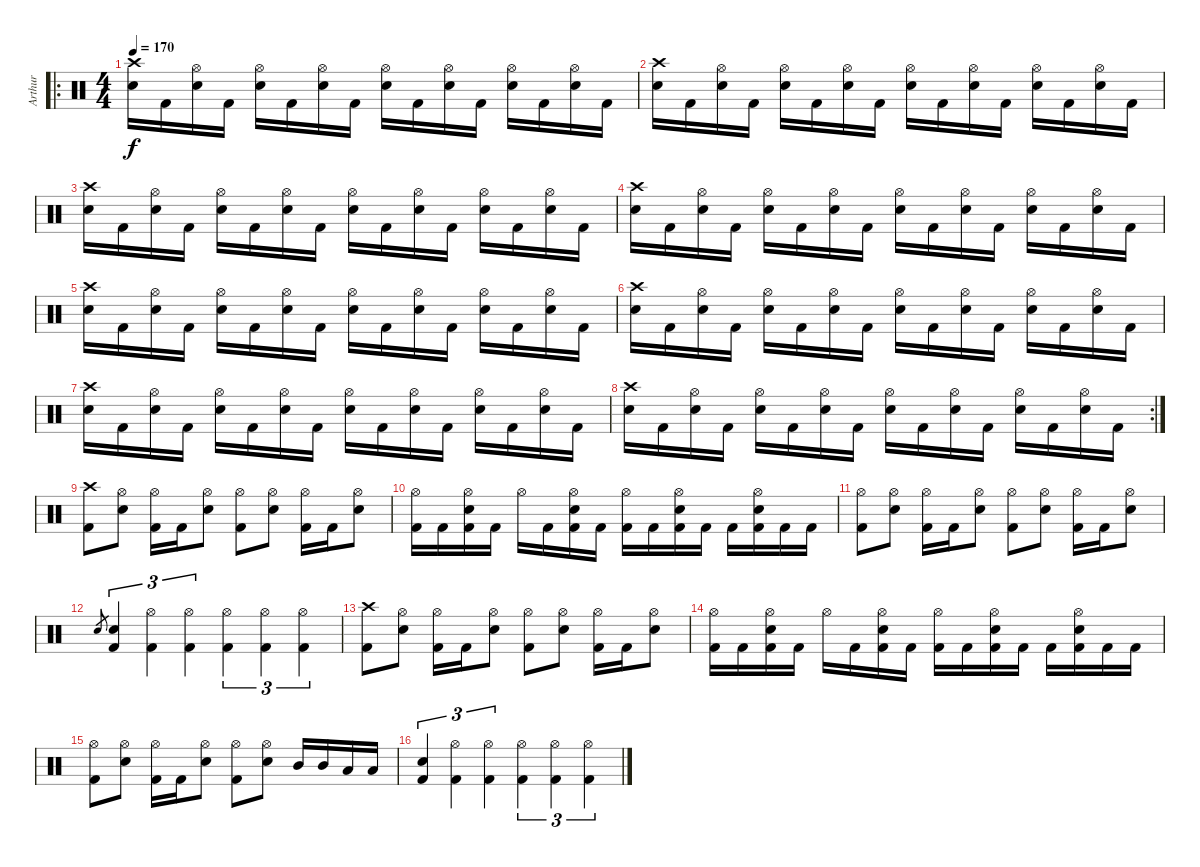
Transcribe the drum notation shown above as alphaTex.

\track ("Arthur" "Arthur") {instrument percussion}
\staff {score}
\articulation defaults
\ro
\ts (4 4)
\tempo 170
\clef neutral
\ks c
("Crash high (hit)" "Electric Snare (hit)").16{dy f} "Kick (hit) 2".16 ("Hi-Hat (open)" "Electric Snare (hit)").16 "Kick (hit) 2".16 ("Hi-Hat (open)" "Electric Snare (hit)").16 "Kick (hit) 2".16 ("Hi-Hat (open)" "Electric Snare (hit)").16 "Kick (hit) 2".16 ("Hi-Hat (open)" "Electric Snare (hit)").16 "Kick (hit) 2".16 ("Hi-Hat (open)" "Electric Snare (hit)").16 "Kick (hit) 2".16 ("Hi-Hat (open)" "Electric Snare (hit)").16 "Kick (hit) 2".16 ("Hi-Hat (open)" "Electric Snare (hit)").16 "Kick (hit) 2".16 |
("Crash high (hit)" "Electric Snare (hit)").16 "Kick (hit) 2".16 ("Hi-Hat (open)" "Electric Snare (hit)").16 "Kick (hit) 2".16 ("Hi-Hat (open)" "Electric Snare (hit)").16 "Kick (hit) 2".16 ("Hi-Hat (open)" "Electric Snare (hit)").16 "Kick (hit) 2".16 ("Hi-Hat (open)" "Electric Snare (hit)").16 "Kick (hit) 2".16 ("Hi-Hat (open)" "Electric Snare (hit)").16 "Kick (hit) 2".16 ("Hi-Hat (open)" "Electric Snare (hit)").16 "Kick (hit) 2".16 ("Hi-Hat (open)" "Electric Snare (hit)").16 "Kick (hit) 2".16 |
("Crash high (hit)" "Electric Snare (hit)").16 "Kick (hit) 2".16 ("Hi-Hat (open)" "Electric Snare (hit)").16 "Kick (hit) 2".16 ("Hi-Hat (open)" "Electric Snare (hit)").16 "Kick (hit) 2".16 ("Hi-Hat (open)" "Electric Snare (hit)").16 "Kick (hit) 2".16 ("Hi-Hat (open)" "Electric Snare (hit)").16 "Kick (hit) 2".16 ("Hi-Hat (open)" "Electric Snare (hit)").16 "Kick (hit) 2".16 ("Hi-Hat (open)" "Electric Snare (hit)").16 "Kick (hit) 2".16 ("Hi-Hat (open)" "Electric Snare (hit)").16 "Kick (hit) 2".16 |
("Crash high (hit)" "Electric Snare (hit)").16 "Kick (hit) 2".16 ("Hi-Hat (open)" "Electric Snare (hit)").16 "Kick (hit) 2".16 ("Hi-Hat (open)" "Electric Snare (hit)").16 "Kick (hit) 2".16 ("Hi-Hat (open)" "Electric Snare (hit)").16 "Kick (hit) 2".16 ("Hi-Hat (open)" "Electric Snare (hit)").16 "Kick (hit) 2".16 ("Hi-Hat (open)" "Electric Snare (hit)").16 "Kick (hit) 2".16 ("Hi-Hat (open)" "Electric Snare (hit)").16 "Kick (hit) 2".16 ("Hi-Hat (open)" "Electric Snare (hit)").16 "Kick (hit) 2".16 |
("Crash high (hit)" "Electric Snare (hit)").16 "Kick (hit) 2".16 ("Hi-Hat (open)" "Electric Snare (hit)").16 "Kick (hit) 2".16 ("Hi-Hat (open)" "Electric Snare (hit)").16 "Kick (hit) 2".16 ("Hi-Hat (open)" "Electric Snare (hit)").16 "Kick (hit) 2".16 ("Hi-Hat (open)" "Electric Snare (hit)").16 "Kick (hit) 2".16 ("Hi-Hat (open)" "Electric Snare (hit)").16 "Kick (hit) 2".16 ("Hi-Hat (open)" "Electric Snare (hit)").16 "Kick (hit) 2".16 ("Hi-Hat (open)" "Electric Snare (hit)").16 "Kick (hit) 2".16 |
("Crash high (hit)" "Electric Snare (hit)").16 "Kick (hit) 2".16 ("Hi-Hat (open)" "Electric Snare (hit)").16 "Kick (hit) 2".16 ("Hi-Hat (open)" "Electric Snare (hit)").16 "Kick (hit) 2".16 ("Hi-Hat (open)" "Electric Snare (hit)").16 "Kick (hit) 2".16 ("Hi-Hat (open)" "Electric Snare (hit)").16 "Kick (hit) 2".16 ("Hi-Hat (open)" "Electric Snare (hit)").16 "Kick (hit) 2".16 ("Hi-Hat (open)" "Electric Snare (hit)").16 "Kick (hit) 2".16 ("Hi-Hat (open)" "Electric Snare (hit)").16 "Kick (hit) 2".16 |
("Crash high (hit)" "Electric Snare (hit)").16 "Kick (hit) 2".16 ("Hi-Hat (open)" "Electric Snare (hit)").16 "Kick (hit) 2".16 ("Hi-Hat (open)" "Electric Snare (hit)").16 "Kick (hit) 2".16 ("Hi-Hat (open)" "Electric Snare (hit)").16 "Kick (hit) 2".16 ("Hi-Hat (open)" "Electric Snare (hit)").16 "Kick (hit) 2".16 ("Hi-Hat (open)" "Electric Snare (hit)").16 "Kick (hit) 2".16 ("Hi-Hat (open)" "Electric Snare (hit)").16 "Kick (hit) 2".16 ("Hi-Hat (open)" "Electric Snare (hit)").16 "Kick (hit) 2".16 |
\rc 2
("Crash high (hit)" "Electric Snare (hit)").16 "Kick (hit) 2".16 ("Hi-Hat (open)" "Electric Snare (hit)").16 "Kick (hit) 2".16 ("Hi-Hat (open)" "Electric Snare (hit)").16 "Kick (hit) 2".16 ("Hi-Hat (open)" "Electric Snare (hit)").16 "Kick (hit) 2".16 ("Hi-Hat (open)" "Electric Snare (hit)").16 "Kick (hit) 2".16 ("Hi-Hat (open)" "Electric Snare (hit)").16 "Kick (hit) 2".16 ("Hi-Hat (open)" "Electric Snare (hit)").16 "Kick (hit) 2".16 ("Hi-Hat (open)" "Electric Snare (hit)").16 "Kick (hit) 2".16 |
("Crash high (hit)" "Kick (hit) 2").8 ("Hi-Hat (open)" "Electric Snare (hit)").8 ("Hi-Hat (open)" "Kick (hit) 2").16 "Kick (hit) 2".16 ("Hi-Hat (open)" "Electric Snare (hit)").8 ("Hi-Hat (open)" "Kick (hit) 2").8 ("Hi-Hat (open)" "Electric Snare (hit)").8 ("Hi-Hat (open)" "Kick (hit) 2").16 "Kick (hit) 2".16 ("Hi-Hat (open)" "Electric Snare (hit)").8 |
("Hi-Hat (open)" "Kick (hit) 2").16 "Kick (hit) 2".16 ("Hi-Hat (open)" "Electric Snare (hit)" "Kick (hit) 2").16 "Kick (hit) 2".16 "Hi-Hat (open)".16 "Kick (hit) 2".16 ("Hi-Hat (open)" "Electric Snare (hit)" "Kick (hit) 2").16 "Kick (hit) 2".16 ("Hi-Hat (open)" "Kick (hit) 2").16 "Kick (hit) 2".16 ("Hi-Hat (open)" "Electric Snare (hit)" "Kick (hit) 2").16 "Kick (hit) 2".16 "Kick (hit) 2".16 ("Hi-Hat (open)" "Electric Snare (hit)" "Kick (hit) 2").16 "Kick (hit) 2".16 "Kick (hit) 2".16 |
("Hi-Hat (open)" "Kick (hit) 2").8 ("Hi-Hat (open)" "Electric Snare (hit)").8 ("Hi-Hat (open)" "Kick (hit) 2").16 "Kick (hit) 2".16 ("Hi-Hat (open)" "Electric Snare (hit)").8 ("Hi-Hat (open)" "Kick (hit) 2").8 ("Hi-Hat (open)" "Electric Snare (hit)").8 ("Hi-Hat (open)" "Kick (hit) 2").16 "Kick (hit) 2".16 ("Hi-Hat (open)" "Electric Snare (hit)").8 |
"Electric Snare (hit)".8{gr} ("Electric Snare (hit)" "Kick (hit) 2").4{tu (3 2)} ("Hi-Hat (open)" "Kick (hit) 2").4{tu (3 2)} ("Hi-Hat (open)" "Kick (hit) 2").4{tu (3 2)} ("Hi-Hat (open)" "Kick (hit) 2").4{tu (3 2)} ("Hi-Hat (open)" "Kick (hit) 2").4{tu (3 2)} ("Hi-Hat (open)" "Kick (hit) 2").4{tu (3 2)} |
("Crash high (hit)" "Kick (hit) 2").8 ("Hi-Hat (open)" "Electric Snare (hit)").8 ("Hi-Hat (open)" "Kick (hit) 2").16 "Kick (hit) 2".16 ("Hi-Hat (open)" "Electric Snare (hit)").8 ("Hi-Hat (open)" "Kick (hit) 2").8 ("Hi-Hat (open)" "Electric Snare (hit)").8 ("Hi-Hat (open)" "Kick (hit) 2").16 "Kick (hit) 2".16 ("Hi-Hat (open)" "Electric Snare (hit)").8 |
("Hi-Hat (open)" "Kick (hit) 2").16 "Kick (hit) 2".16 ("Hi-Hat (open)" "Electric Snare (hit)" "Kick (hit) 2").16 "Kick (hit) 2".16 "Hi-Hat (open)".16 "Kick (hit) 2".16 ("Hi-Hat (open)" "Electric Snare (hit)" "Kick (hit) 2").16 "Kick (hit) 2".16 ("Hi-Hat (open)" "Kick (hit) 2").16 "Kick (hit) 2".16 ("Hi-Hat (open)" "Electric Snare (hit)" "Kick (hit) 2").16 "Kick (hit) 2".16 "Kick (hit) 2".16 ("Hi-Hat (open)" "Electric Snare (hit)" "Kick (hit) 2").16 "Kick (hit) 2".16 "Kick (hit) 2".16 |
("Hi-Hat (open)" "Kick (hit) 2").8 ("Hi-Hat (open)" "Electric Snare (hit)").8 ("Hi-Hat (open)" "Kick (hit) 2").16 "Kick (hit) 2".16 ("Hi-Hat (open)" "Electric Snare (hit)").8 ("Hi-Hat (open)" "Kick (hit) 2").8 ("Hi-Hat (open)" "Electric Snare (hit)").8 "Mid Tom (hit)".16 "Mid Tom (hit)".16 "Low Tom (hit)".16 "Low Tom (hit)".16 |
("Electric Snare (hit)" "Kick (hit) 2").4{tu (3 2)} ("Hi-Hat (open)" "Kick (hit) 2").4{tu (3 2)} ("Hi-Hat (open)" "Kick (hit) 2").4{tu (3 2)} ("Hi-Hat (open)" "Kick (hit) 2").4{tu (3 2)} ("Hi-Hat (open)" "Kick (hit) 2").4{tu (3 2)} ("Hi-Hat (open)" "Kick (hit) 2").4{tu (3 2)}
